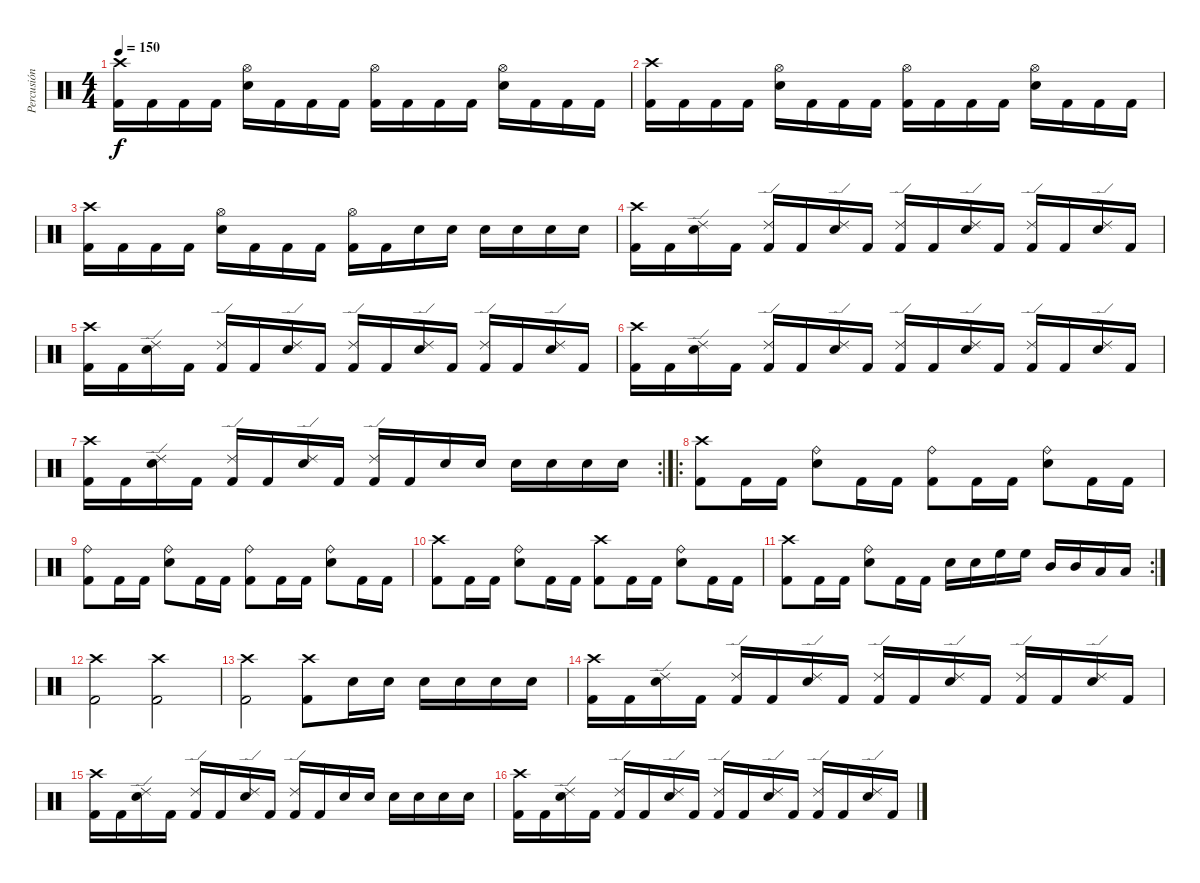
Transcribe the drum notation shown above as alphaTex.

\track ("Percusión" "Percusión") {instrument percussion}
\staff {score}
\articulation defaults
\ts (4 4)
\tempo 150
\clef neutral
\ks c
("Crash high (hit)" "Kick (hit) 2").16{dy f} "Kick (hit) 2".16 "Kick (hit) 2".16 "Kick (hit) 2".16 ("Hi-Hat (open)" "Electric Snare (hit)").16 "Kick (hit) 2".16 "Kick (hit) 2".16 "Kick (hit) 2".16 ("Hi-Hat (open)" "Kick (hit) 2").16 "Kick (hit) 2".16 "Kick (hit) 2".16 "Kick (hit) 2".16 ("Hi-Hat (open)" "Electric Snare (hit)").16 "Kick (hit) 2".16 "Kick (hit) 2".16 "Kick (hit) 2".16 |
("Crash high (hit)" "Kick (hit) 2").16 "Kick (hit) 2".16 "Kick (hit) 2".16 "Kick (hit) 2".16 ("Hi-Hat (open)" "Electric Snare (hit)").16 "Kick (hit) 2".16 "Kick (hit) 2".16 "Kick (hit) 2".16 ("Hi-Hat (open)" "Kick (hit) 2").16 "Kick (hit) 2".16 "Kick (hit) 2".16 "Kick (hit) 2".16 ("Hi-Hat (open)" "Electric Snare (hit)").16 "Kick (hit) 2".16 "Kick (hit) 2".16 "Kick (hit) 2".16 |
("Crash high (hit)" "Kick (hit) 2").16 "Kick (hit) 2".16 "Kick (hit) 2".16 "Kick (hit) 2".16 ("Hi-Hat (open)" "Electric Snare (hit)").16 "Kick (hit) 2".16 "Kick (hit) 2".16 "Kick (hit) 2".16 ("Hi-Hat (open)" "Kick (hit) 2").16 "Kick (hit) 2".16 "Electric Snare (hit)".16 "Electric Snare (hit)".16 "Electric Snare (hit)".16 "Electric Snare (hit)".16 "Electric Snare (hit)".16 "Electric Snare (hit)".16 |
("Crash high (hit)" "Kick (hit) 2").16 "Kick (hit) 2".16 ("Ride (edge) 2" "Electric Snare (hit)").16 "Kick (hit) 2".16 ("Ride (edge) 2" "Kick (hit) 2").16 "Kick (hit) 2".16 ("Ride (edge) 2" "Electric Snare (hit)").16 "Kick (hit) 2".16 ("Ride (edge) 2" "Kick (hit) 2").16 "Kick (hit) 2".16 ("Ride (edge) 2" "Electric Snare (hit)").16 "Kick (hit) 2".16 ("Ride (edge) 2" "Kick (hit) 2").16 "Kick (hit) 2".16 ("Ride (edge) 2" "Electric Snare (hit)").16 "Kick (hit) 2".16 |
("Crash high (hit)" "Kick (hit) 2").16 "Kick (hit) 2".16 ("Ride (edge) 2" "Electric Snare (hit)").16 "Kick (hit) 2".16 ("Ride (edge) 2" "Kick (hit) 2").16 "Kick (hit) 2".16 ("Ride (edge) 2" "Electric Snare (hit)").16 "Kick (hit) 2".16 ("Ride (edge) 2" "Kick (hit) 2").16 "Kick (hit) 2".16 ("Ride (edge) 2" "Electric Snare (hit)").16 "Kick (hit) 2".16 ("Ride (edge) 2" "Kick (hit) 2").16 "Kick (hit) 2".16 ("Ride (edge) 2" "Electric Snare (hit)").16 "Kick (hit) 2".16 |
("Crash high (hit)" "Kick (hit) 2").16 "Kick (hit) 2".16 ("Ride (edge) 2" "Electric Snare (hit)").16 "Kick (hit) 2".16 ("Ride (edge) 2" "Kick (hit) 2").16 "Kick (hit) 2".16 ("Ride (edge) 2" "Electric Snare (hit)").16 "Kick (hit) 2".16 ("Ride (edge) 2" "Kick (hit) 2").16 "Kick (hit) 2".16 ("Ride (edge) 2" "Electric Snare (hit)").16 "Kick (hit) 2".16 ("Ride (edge) 2" "Kick (hit) 2").16 "Kick (hit) 2".16 ("Ride (edge) 2" "Electric Snare (hit)").16 "Kick (hit) 2".16 |
\rc 2
("Crash high (hit)" "Kick (hit) 2").16 "Kick (hit) 2".16 ("Ride (edge) 2" "Electric Snare (hit)").16 "Kick (hit) 2".16 ("Ride (edge) 2" "Kick (hit) 2").16 "Kick (hit) 2".16 ("Ride (edge) 2" "Electric Snare (hit)").16 "Kick (hit) 2".16 ("Ride (edge) 2" "Kick (hit) 2").16 "Kick (hit) 2".16 "Electric Snare (hit)".16 "Electric Snare (hit)".16 "Electric Snare (hit)".16 "Electric Snare (hit)".16 "Electric Snare (hit)".16 "Electric Snare (hit)".16 |
\ro
("Crash high (hit)" "Kick (hit) 2").8 "Kick (hit) 2".16 "Kick (hit) 2".16 ("Ride (bell)" "Electric Snare (hit)").8 "Kick (hit) 2".16 "Kick (hit) 2".16 ("Ride (bell)" "Kick (hit) 2").8 "Kick (hit) 2".16 "Kick (hit) 2".16 ("Ride (bell)" "Electric Snare (hit)").8 "Kick (hit) 2".16 "Kick (hit) 2".16 |
("Ride (bell)" "Kick (hit) 2").8 "Kick (hit) 2".16 "Kick (hit) 2".16 ("Ride (bell)" "Electric Snare (hit)").8 "Kick (hit) 2".16 "Kick (hit) 2".16 ("Ride (bell)" "Kick (hit) 2").8 "Kick (hit) 2".16 "Kick (hit) 2".16 ("Ride (bell)" "Electric Snare (hit)").8 "Kick (hit) 2".16 "Kick (hit) 2".16 |
("Crash high (hit)" "Kick (hit) 2").8 "Kick (hit) 2".16 "Kick (hit) 2".16 ("Ride (bell)" "Electric Snare (hit)").8 "Kick (hit) 2".16 "Kick (hit) 2".16 ("Crash high (hit)" "Kick (hit) 2").8 "Kick (hit) 2".16 "Kick (hit) 2".16 ("Ride (bell)" "Electric Snare (hit)").8 "Kick (hit) 2".16 "Kick (hit) 2".16 |
\rc 2
("Crash high (hit)" "Kick (hit) 2").8 "Kick (hit) 2".16 "Kick (hit) 2".16 ("Ride (bell)" "Electric Snare (hit)").8 "Kick (hit) 2".16 "Kick (hit) 2".16 "Electric Snare (hit)".16 "Electric Snare (hit)".16 "High Floor Tom (hit)".16 "High Floor Tom (hit)".16 "Mid Tom (hit)".16 "Mid Tom (hit)".16 "Low Tom (hit)".16 "Low Tom (hit)".16 |
("Crash high (hit)" "Kick (hit) 2").2 ("Crash high (hit)" "Kick (hit) 2").2 |
("Crash high (hit)" "Kick (hit) 2").2 ("Crash high (hit)" "Kick (hit) 2").8 "Electric Snare (hit)".16 "Electric Snare (hit)".16 "Electric Snare (hit)".16 "Electric Snare (hit)".16 "Electric Snare (hit)".16 "Electric Snare (hit)".16 |
("Crash high (hit)" "Kick (hit) 2").16 "Kick (hit) 2".16 ("Ride (edge) 2" "Electric Snare (hit)").16 "Kick (hit) 2".16 ("Ride (edge) 2" "Kick (hit) 2").16 "Kick (hit) 2".16 ("Ride (edge) 2" "Electric Snare (hit)").16 "Kick (hit) 2".16 ("Ride (edge) 2" "Kick (hit) 2").16 "Kick (hit) 2".16 ("Ride (edge) 2" "Electric Snare (hit)").16 "Kick (hit) 2".16 ("Ride (edge) 2" "Kick (hit) 2").16 "Kick (hit) 2".16 ("Ride (edge) 2" "Electric Snare (hit)").16 "Kick (hit) 2".16 |
("Crash high (hit)" "Kick (hit) 2").16 "Kick (hit) 2".16 ("Ride (edge) 2" "Electric Snare (hit)").16 "Kick (hit) 2".16 ("Ride (edge) 2" "Kick (hit) 2").16 "Kick (hit) 2".16 ("Ride (edge) 2" "Electric Snare (hit)").16 "Kick (hit) 2".16 ("Ride (edge) 2" "Kick (hit) 2").16 "Kick (hit) 2".16 "Electric Snare (hit)".16 "Electric Snare (hit)".16 "Electric Snare (hit)".16 "Electric Snare (hit)".16 "Electric Snare (hit)".16 "Electric Snare (hit)".16 |
("Crash high (hit)" "Kick (hit) 2").16 "Kick (hit) 2".16 ("Ride (edge) 2" "Electric Snare (hit)").16 "Kick (hit) 2".16 ("Ride (edge) 2" "Kick (hit) 2").16 "Kick (hit) 2".16 ("Ride (edge) 2" "Electric Snare (hit)").16 "Kick (hit) 2".16 ("Ride (edge) 2" "Kick (hit) 2").16 "Kick (hit) 2".16 ("Ride (edge) 2" "Electric Snare (hit)").16 "Kick (hit) 2".16 ("Ride (edge) 2" "Kick (hit) 2").16 "Kick (hit) 2".16 ("Ride (edge) 2" "Electric Snare (hit)").16 "Kick (hit) 2".16
